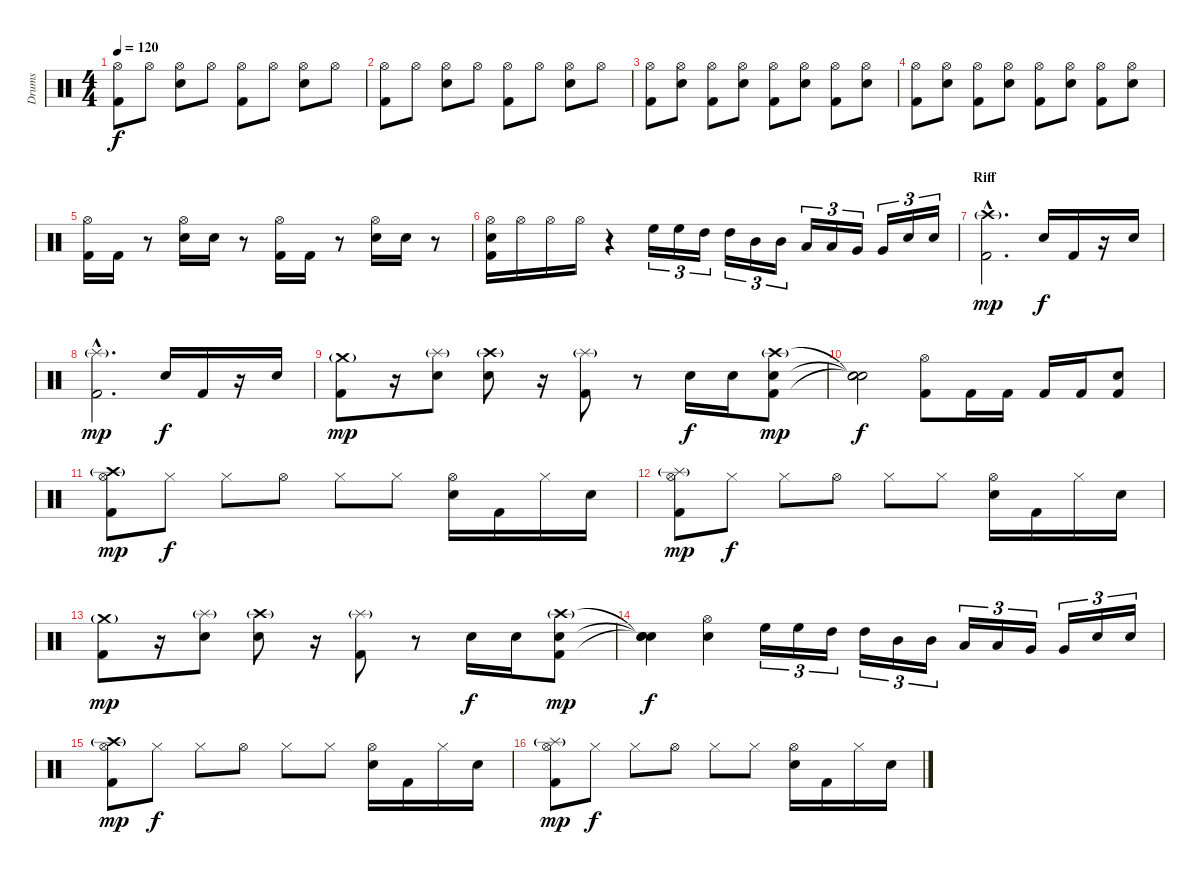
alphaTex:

\track ("Drums" "Drums") {instrument percussion}
\staff {score}
\articulation defaults
\ts (4 4)
\tempo 120
\clef neutral
\ks c
("Hi-Hat (open)" "Kick (hit) 2").8{dy f} "Hi-Hat (open)".8 ("Hi-Hat (open)" "Electric Snare (hit)").8 "Hi-Hat (open)".8 ("Hi-Hat (open)" "Kick (hit) 2").8 "Hi-Hat (open)".8 ("Hi-Hat (open)" "Electric Snare (hit)").8 "Hi-Hat (open)".8 |
("Hi-Hat (open)" "Kick (hit) 2").8 "Hi-Hat (open)".8 ("Hi-Hat (open)" "Electric Snare (hit)").8 "Hi-Hat (open)".8 ("Hi-Hat (open)" "Kick (hit) 2").8 "Hi-Hat (open)".8 ("Hi-Hat (open)" "Electric Snare (hit)").8 "Hi-Hat (open)".8 |
("Hi-Hat (open)" "Kick (hit) 2").8 ("Hi-Hat (open)" "Electric Snare (hit)").8 ("Hi-Hat (open)" "Kick (hit) 2").8 ("Hi-Hat (open)" "Electric Snare (hit)").8 ("Hi-Hat (open)" "Kick (hit) 2").8 ("Hi-Hat (open)" "Electric Snare (hit)").8 ("Hi-Hat (open)" "Kick (hit) 2").8 ("Hi-Hat (open)" "Electric Snare (hit)").8 |
("Hi-Hat (open)" "Kick (hit) 2").8 ("Hi-Hat (open)" "Electric Snare (hit)").8 ("Hi-Hat (open)" "Kick (hit) 2").8 ("Hi-Hat (open)" "Electric Snare (hit)").8 ("Hi-Hat (open)" "Kick (hit) 2").8 ("Hi-Hat (open)" "Electric Snare (hit)").8 ("Hi-Hat (open)" "Kick (hit) 2").8 ("Hi-Hat (open)" "Electric Snare (hit)").8 |
("Hi-Hat (open)" "Kick (hit) 2").16 "Kick (hit) 2".16 r.8 ("Hi-Hat (open)" "Electric Snare (hit)").16 "Electric Snare (hit)".16 r.8 ("Hi-Hat (open)" "Kick (hit) 2").16 "Kick (hit) 2".16 r.8 ("Hi-Hat (open)" "Electric Snare (hit)").16 "Electric Snare (hit)".16 r.8 |
("Hi-Hat (open)" "Electric Snare (hit)" "Kick (hit) 2").16 "Hi-Hat (open)".16 "Hi-Hat (open)".16 "Hi-Hat (open)".16 r.4 "High Floor Tom (hit)".16{tu (3 2)} "High Floor Tom (hit)".16{tu (3 2)} "High Tom (hit)".16{tu (3 2)} "High Tom (hit)".16{tu (3 2)} "Mid Tom (hit)".16{tu (3 2)} "Mid Tom (hit)".16{tu (3 2)} "Low Tom (hit)".16{tu (3 2)} "Low Tom (hit)".16{tu (3 2)} "Very Low Tom (hit)".16{tu (3 2)} "Very Low Tom (hit)".16{tu (3 2)} "Electric Snare (hit)".16{tu (3 2)} "Electric Snare (hit)".16{tu (3 2)} |
\section ("" "Riff")
("Crash high (hit)"{g hac} "Kick (hit) 2"{hac}).2{d dy mp} "Electric Snare (hit)".16{dy f} "Kick (hit) 2".16 r.16 "Electric Snare (hit)".16 |
("Splash (hit)"{g hac} "Kick (hit) 2"{hac}).2{d dy mp} "Electric Snare (hit)".16{dy f} "Kick (hit) 2".16 r.16 "Electric Snare (hit)".16 |
("Crash medium (hit)"{g} "Kick (hit) 2").8{dy mp} r.16 ("Splash (hit)"{g} "Electric Snare (hit)").8 ("Crash high (hit)"{g} "Electric Snare (hit)").8 r.16 ("Splash (hit)"{g} "Kick (hit) 2").8 r.8 "Electric Snare (hit)".16{dy f} "Electric Snare (hit)".16 ("Crash high (hit)"{g} "Electric Snare (hit)" "Kick (hit) 2").8{dy mp} |
("Snare (hit)"{t} "Snare (hit)"{t} "Snare (hit)"{t}).2{dy f} ("Hi-Hat (open)" "Kick (hit) 2").8 "Kick (hit) 2".16 "Kick (hit) 2".16 "Kick (hit) 2".16 "Kick (hit) 2".16 ("Electric Snare (hit)" "Kick (hit) 2").8 |
("Crash high (hit)"{g} "Hi-Hat (open)" "Kick (hit) 2").8{dy mp} "Hi-Hat (closed)".8{dy f} "Hi-Hat (closed)".8 "Hi-Hat (open)".8 "Hi-Hat (closed)".8 "Hi-Hat (closed)".8 ("Hi-Hat (open)" "Electric Snare (hit)").16 "Kick (hit) 2".16 "Hi-Hat (closed)".16 "Electric Snare (hit)".16 |
("Splash (hit)"{g} "Hi-Hat (open)" "Kick (hit) 2").8{dy mp} "Hi-Hat (closed)".8{dy f} "Hi-Hat (closed)".8 "Hi-Hat (open)".8 "Hi-Hat (closed)".8 "Hi-Hat (closed)".8 ("Hi-Hat (open)" "Electric Snare (hit)").16 "Kick (hit) 2".16 "Hi-Hat (closed)".16 "Electric Snare (hit)".16 |
("Crash medium (hit)"{g} "Kick (hit) 2").8{dy mp} r.16 ("Splash (hit)"{g} "Electric Snare (hit)").8 ("Crash high (hit)"{g} "Electric Snare (hit)").8 r.16 ("Splash (hit)"{g} "Kick (hit) 2").8 r.8 "Electric Snare (hit)".16{dy f} "Electric Snare (hit)".16 ("Crash high (hit)"{g} "Electric Snare (hit)" "Kick (hit) 2").8{dy mp} |
("Snare (hit)"{t} "Snare (hit)"{t} "Snare (hit)"{t}).4{dy f} ("Hi-Hat (open)" "Electric Snare (hit)").4 "High Floor Tom (hit)".16{tu (3 2)} "High Floor Tom (hit)".16{tu (3 2)} "High Tom (hit)".16{tu (3 2)} "High Tom (hit)".16{tu (3 2)} "Mid Tom (hit)".16{tu (3 2)} "Mid Tom (hit)".16{tu (3 2)} "Low Tom (hit)".16{tu (3 2)} "Low Tom (hit)".16{tu (3 2)} "Very Low Tom (hit)".16{tu (3 2)} "Very Low Tom (hit)".16{tu (3 2)} "Electric Snare (hit)".16{tu (3 2)} "Electric Snare (hit)".16{tu (3 2)} |
("Crash high (hit)"{g} "Hi-Hat (open)" "Kick (hit) 2").8{dy mp} "Hi-Hat (closed)".8{dy f} "Hi-Hat (closed)".8 "Hi-Hat (open)".8 "Hi-Hat (closed)".8 "Hi-Hat (closed)".8 ("Hi-Hat (open)" "Electric Snare (hit)").16 "Kick (hit) 2".16 "Hi-Hat (closed)".16 "Electric Snare (hit)".16 |
("Splash (hit)"{g} "Hi-Hat (open)" "Kick (hit) 2").8{dy mp} "Hi-Hat (closed)".8{dy f} "Hi-Hat (closed)".8 "Hi-Hat (open)".8 "Hi-Hat (closed)".8 "Hi-Hat (closed)".8 ("Hi-Hat (open)" "Electric Snare (hit)").16 "Kick (hit) 2".16 "Hi-Hat (closed)".16 "Electric Snare (hit)".16
